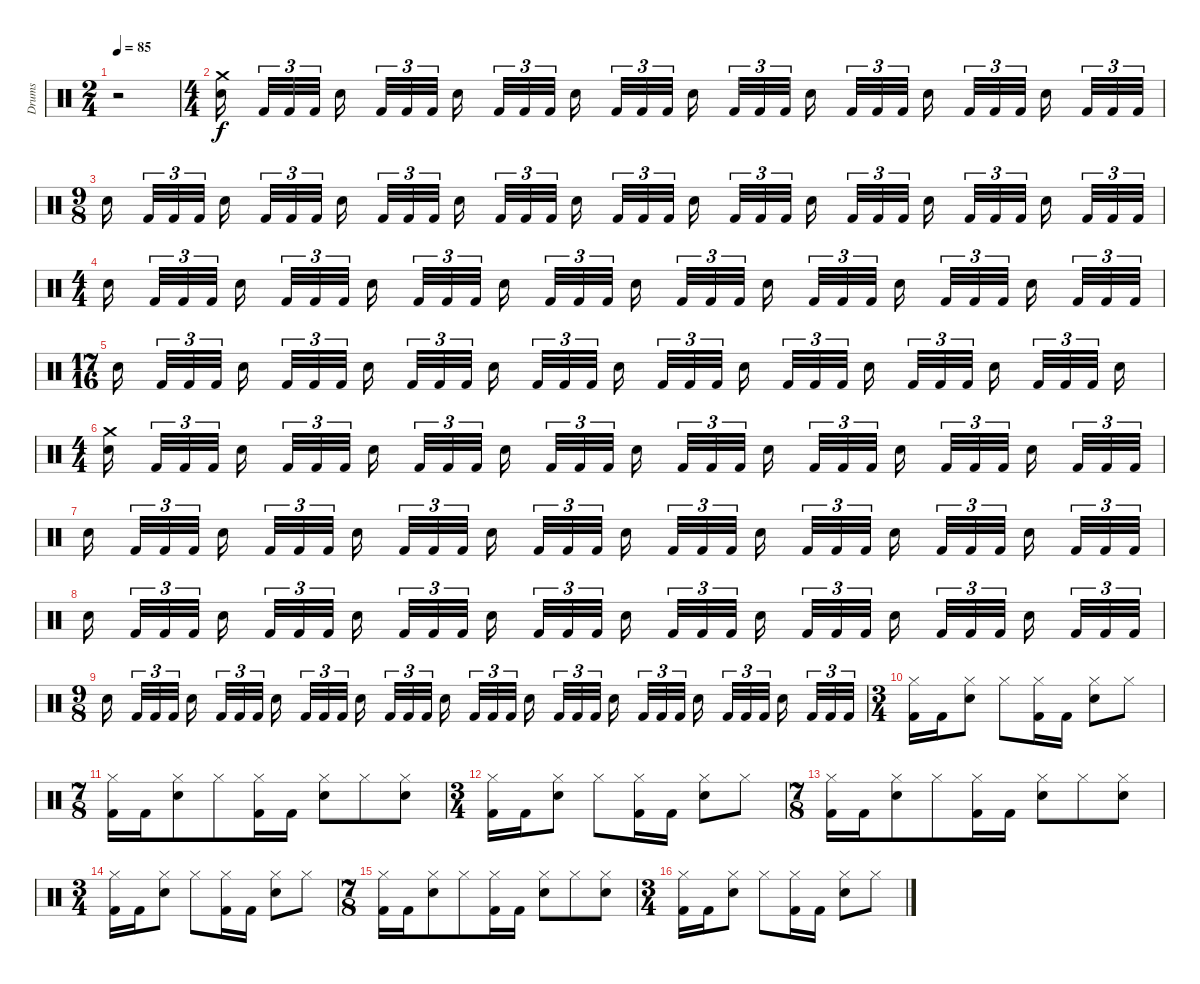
\track ("Drums" "Drums") {instrument percussion}
\staff {score}
\articulation defaults
\ts (2 4)
\tempo 85
\clef neutral
\ks c
r.2{dy f} |
\ts (4 4)
("Crash medium (hit)" "Electric Snare (hit)").16{beam splitsecondary} "Kick (hit) 2".32{tu (3 2)} "Kick (hit) 2".32{tu (3 2)} "Kick (hit) 2".32{tu (3 2) beam splitsecondary} "Electric Snare (hit)".16{beam splitsecondary} "Kick (hit) 2".32{tu (3 2)} "Kick (hit) 2".32{tu (3 2)} "Kick (hit) 2".32{tu (3 2)} "Electric Snare (hit)".16{beam splitsecondary} "Kick (hit) 2".32{tu (3 2)} "Kick (hit) 2".32{tu (3 2)} "Kick (hit) 2".32{tu (3 2) beam splitsecondary} "Electric Snare (hit)".16{beam splitsecondary} "Kick (hit) 2".32{tu (3 2)} "Kick (hit) 2".32{tu (3 2)} "Kick (hit) 2".32{tu (3 2)} "Electric Snare (hit)".16{beam splitsecondary} "Kick (hit) 2".32{tu (3 2)} "Kick (hit) 2".32{tu (3 2)} "Kick (hit) 2".32{tu (3 2) beam splitsecondary} "Electric Snare (hit)".16{beam splitsecondary} "Kick (hit) 2".32{tu (3 2)} "Kick (hit) 2".32{tu (3 2)} "Kick (hit) 2".32{tu (3 2)} "Electric Snare (hit)".16{beam splitsecondary} "Kick (hit) 2".32{tu (3 2)} "Kick (hit) 2".32{tu (3 2)} "Kick (hit) 2".32{tu (3 2) beam splitsecondary} "Electric Snare (hit)".16{beam splitsecondary} "Kick (hit) 2".32{tu (3 2)} "Kick (hit) 2".32{tu (3 2)} "Kick (hit) 2".32{tu (3 2)} |
\ts (9 8)
"Electric Snare (hit)".16{beam splitsecondary} "Kick (hit) 2".32{tu (3 2)} "Kick (hit) 2".32{tu (3 2)} "Kick (hit) 2".32{tu (3 2) beam splitsecondary} "Electric Snare (hit)".16{beam splitsecondary} "Kick (hit) 2".32{tu (3 2)} "Kick (hit) 2".32{tu (3 2)} "Kick (hit) 2".32{tu (3 2) beam splitsecondary} "Electric Snare (hit)".16{beam splitsecondary} "Kick (hit) 2".32{tu (3 2)} "Kick (hit) 2".32{tu (3 2)} "Kick (hit) 2".32{tu (3 2)} "Electric Snare (hit)".16{beam splitsecondary} "Kick (hit) 2".32{tu (3 2)} "Kick (hit) 2".32{tu (3 2)} "Kick (hit) 2".32{tu (3 2) beam splitsecondary} "Electric Snare (hit)".16{beam splitsecondary} "Kick (hit) 2".32{tu (3 2)} "Kick (hit) 2".32{tu (3 2)} "Kick (hit) 2".32{tu (3 2) beam splitsecondary} "Electric Snare (hit)".16{beam splitsecondary} "Kick (hit) 2".32{tu (3 2)} "Kick (hit) 2".32{tu (3 2)} "Kick (hit) 2".32{tu (3 2)} "Electric Snare (hit)".16{beam splitsecondary} "Kick (hit) 2".32{tu (3 2)} "Kick (hit) 2".32{tu (3 2)} "Kick (hit) 2".32{tu (3 2) beam splitsecondary} "Electric Snare (hit)".16{beam splitsecondary} "Kick (hit) 2".32{tu (3 2)} "Kick (hit) 2".32{tu (3 2)} "Kick (hit) 2".32{tu (3 2) beam splitsecondary} "Electric Snare (hit)".16{beam splitsecondary} "Kick (hit) 2".32{tu (3 2)} "Kick (hit) 2".32{tu (3 2)} "Kick (hit) 2".32{tu (3 2)} |
\ts (4 4)
"Electric Snare (hit)".16{beam splitsecondary} "Kick (hit) 2".32{tu (3 2)} "Kick (hit) 2".32{tu (3 2)} "Kick (hit) 2".32{tu (3 2) beam splitsecondary} "Electric Snare (hit)".16{beam splitsecondary} "Kick (hit) 2".32{tu (3 2)} "Kick (hit) 2".32{tu (3 2)} "Kick (hit) 2".32{tu (3 2)} "Electric Snare (hit)".16{beam splitsecondary} "Kick (hit) 2".32{tu (3 2)} "Kick (hit) 2".32{tu (3 2)} "Kick (hit) 2".32{tu (3 2) beam splitsecondary} "Electric Snare (hit)".16{beam splitsecondary} "Kick (hit) 2".32{tu (3 2)} "Kick (hit) 2".32{tu (3 2)} "Kick (hit) 2".32{tu (3 2)} "Electric Snare (hit)".16{beam splitsecondary} "Kick (hit) 2".32{tu (3 2)} "Kick (hit) 2".32{tu (3 2)} "Kick (hit) 2".32{tu (3 2) beam splitsecondary} "Electric Snare (hit)".16{beam splitsecondary} "Kick (hit) 2".32{tu (3 2)} "Kick (hit) 2".32{tu (3 2)} "Kick (hit) 2".32{tu (3 2)} "Electric Snare (hit)".16{beam splitsecondary} "Kick (hit) 2".32{tu (3 2)} "Kick (hit) 2".32{tu (3 2)} "Kick (hit) 2".32{tu (3 2) beam splitsecondary} "Electric Snare (hit)".16{beam splitsecondary} "Kick (hit) 2".32{tu (3 2)} "Kick (hit) 2".32{tu (3 2)} "Kick (hit) 2".32{tu (3 2)} |
\ts (17 16)
"Electric Snare (hit)".16 "Kick (hit) 2".32{tu (3 2)} "Kick (hit) 2".32{tu (3 2)} "Kick (hit) 2".32{tu (3 2)} "Electric Snare (hit)".16 "Kick (hit) 2".32{tu (3 2)} "Kick (hit) 2".32{tu (3 2)} "Kick (hit) 2".32{tu (3 2)} "Electric Snare (hit)".16 "Kick (hit) 2".32{tu (3 2)} "Kick (hit) 2".32{tu (3 2)} "Kick (hit) 2".32{tu (3 2)} "Electric Snare (hit)".16 "Kick (hit) 2".32{tu (3 2)} "Kick (hit) 2".32{tu (3 2)} "Kick (hit) 2".32{tu (3 2)} "Electric Snare (hit)".16 "Kick (hit) 2".32{tu (3 2)} "Kick (hit) 2".32{tu (3 2)} "Kick (hit) 2".32{tu (3 2)} "Electric Snare (hit)".16 "Kick (hit) 2".32{tu (3 2)} "Kick (hit) 2".32{tu (3 2)} "Kick (hit) 2".32{tu (3 2)} "Electric Snare (hit)".16 "Kick (hit) 2".32{tu (3 2)} "Kick (hit) 2".32{tu (3 2)} "Kick (hit) 2".32{tu (3 2)} "Electric Snare (hit)".16 "Kick (hit) 2".32{tu (3 2)} "Kick (hit) 2".32{tu (3 2)} "Kick (hit) 2".32{tu (3 2)} "Electric Snare (hit)".16 |
\ts (4 4)
("Crash medium (hit)" "Electric Snare (hit)").16{beam splitsecondary} "Kick (hit) 2".32{tu (3 2)} "Kick (hit) 2".32{tu (3 2)} "Kick (hit) 2".32{tu (3 2) beam splitsecondary} "Electric Snare (hit)".16{beam splitsecondary} "Kick (hit) 2".32{tu (3 2)} "Kick (hit) 2".32{tu (3 2)} "Kick (hit) 2".32{tu (3 2)} "Electric Snare (hit)".16{beam splitsecondary} "Kick (hit) 2".32{tu (3 2)} "Kick (hit) 2".32{tu (3 2)} "Kick (hit) 2".32{tu (3 2) beam splitsecondary} "Electric Snare (hit)".16{beam splitsecondary} "Kick (hit) 2".32{tu (3 2)} "Kick (hit) 2".32{tu (3 2)} "Kick (hit) 2".32{tu (3 2)} "Electric Snare (hit)".16{beam splitsecondary} "Kick (hit) 2".32{tu (3 2)} "Kick (hit) 2".32{tu (3 2)} "Kick (hit) 2".32{tu (3 2) beam splitsecondary} "Electric Snare (hit)".16{beam splitsecondary} "Kick (hit) 2".32{tu (3 2)} "Kick (hit) 2".32{tu (3 2)} "Kick (hit) 2".32{tu (3 2)} "Electric Snare (hit)".16{beam splitsecondary} "Kick (hit) 2".32{tu (3 2)} "Kick (hit) 2".32{tu (3 2)} "Kick (hit) 2".32{tu (3 2) beam splitsecondary} "Electric Snare (hit)".16{beam splitsecondary} "Kick (hit) 2".32{tu (3 2)} "Kick (hit) 2".32{tu (3 2)} "Kick (hit) 2".32{tu (3 2)} |
"Electric Snare (hit)".16{beam splitsecondary} "Kick (hit) 2".32{tu (3 2)} "Kick (hit) 2".32{tu (3 2)} "Kick (hit) 2".32{tu (3 2) beam splitsecondary} "Electric Snare (hit)".16{beam splitsecondary} "Kick (hit) 2".32{tu (3 2)} "Kick (hit) 2".32{tu (3 2)} "Kick (hit) 2".32{tu (3 2)} "Electric Snare (hit)".16{beam splitsecondary} "Kick (hit) 2".32{tu (3 2)} "Kick (hit) 2".32{tu (3 2)} "Kick (hit) 2".32{tu (3 2) beam splitsecondary} "Electric Snare (hit)".16{beam splitsecondary} "Kick (hit) 2".32{tu (3 2)} "Kick (hit) 2".32{tu (3 2)} "Kick (hit) 2".32{tu (3 2)} "Electric Snare (hit)".16{beam splitsecondary} "Kick (hit) 2".32{tu (3 2)} "Kick (hit) 2".32{tu (3 2)} "Kick (hit) 2".32{tu (3 2) beam splitsecondary} "Electric Snare (hit)".16{beam splitsecondary} "Kick (hit) 2".32{tu (3 2)} "Kick (hit) 2".32{tu (3 2)} "Kick (hit) 2".32{tu (3 2)} "Electric Snare (hit)".16{beam splitsecondary} "Kick (hit) 2".32{tu (3 2)} "Kick (hit) 2".32{tu (3 2)} "Kick (hit) 2".32{tu (3 2) beam splitsecondary} "Electric Snare (hit)".16{beam splitsecondary} "Kick (hit) 2".32{tu (3 2)} "Kick (hit) 2".32{tu (3 2)} "Kick (hit) 2".32{tu (3 2)} |
"Electric Snare (hit)".16{beam splitsecondary} "Kick (hit) 2".32{tu (3 2)} "Kick (hit) 2".32{tu (3 2)} "Kick (hit) 2".32{tu (3 2) beam splitsecondary} "Electric Snare (hit)".16{beam splitsecondary} "Kick (hit) 2".32{tu (3 2)} "Kick (hit) 2".32{tu (3 2)} "Kick (hit) 2".32{tu (3 2)} "Electric Snare (hit)".16{beam splitsecondary} "Kick (hit) 2".32{tu (3 2)} "Kick (hit) 2".32{tu (3 2)} "Kick (hit) 2".32{tu (3 2) beam splitsecondary} "Electric Snare (hit)".16{beam splitsecondary} "Kick (hit) 2".32{tu (3 2)} "Kick (hit) 2".32{tu (3 2)} "Kick (hit) 2".32{tu (3 2)} "Electric Snare (hit)".16{beam splitsecondary} "Kick (hit) 2".32{tu (3 2)} "Kick (hit) 2".32{tu (3 2)} "Kick (hit) 2".32{tu (3 2) beam splitsecondary} "Electric Snare (hit)".16{beam splitsecondary} "Kick (hit) 2".32{tu (3 2)} "Kick (hit) 2".32{tu (3 2)} "Kick (hit) 2".32{tu (3 2)} "Electric Snare (hit)".16{beam splitsecondary} "Kick (hit) 2".32{tu (3 2)} "Kick (hit) 2".32{tu (3 2)} "Kick (hit) 2".32{tu (3 2) beam splitsecondary} "Electric Snare (hit)".16{beam splitsecondary} "Kick (hit) 2".32{tu (3 2)} "Kick (hit) 2".32{tu (3 2)} "Kick (hit) 2".32{tu (3 2)} |
\ts (9 8)
"Electric Snare (hit)".16{beam splitsecondary} "Kick (hit) 2".32{tu (3 2)} "Kick (hit) 2".32{tu (3 2)} "Kick (hit) 2".32{tu (3 2) beam splitsecondary} "Electric Snare (hit)".16{beam splitsecondary} "Kick (hit) 2".32{tu (3 2)} "Kick (hit) 2".32{tu (3 2)} "Kick (hit) 2".32{tu (3 2) beam splitsecondary} "Electric Snare (hit)".16{beam splitsecondary} "Kick (hit) 2".32{tu (3 2)} "Kick (hit) 2".32{tu (3 2)} "Kick (hit) 2".32{tu (3 2)} "Electric Snare (hit)".16{beam splitsecondary} "Kick (hit) 2".32{tu (3 2)} "Kick (hit) 2".32{tu (3 2)} "Kick (hit) 2".32{tu (3 2) beam splitsecondary} "Electric Snare (hit)".16{beam splitsecondary} "Kick (hit) 2".32{tu (3 2)} "Kick (hit) 2".32{tu (3 2)} "Kick (hit) 2".32{tu (3 2) beam splitsecondary} "Electric Snare (hit)".16{beam splitsecondary} "Kick (hit) 2".32{tu (3 2)} "Kick (hit) 2".32{tu (3 2)} "Kick (hit) 2".32{tu (3 2)} "Electric Snare (hit)".16{beam splitsecondary} "Kick (hit) 2".32{tu (3 2)} "Kick (hit) 2".32{tu (3 2)} "Kick (hit) 2".32{tu (3 2) beam splitsecondary} "Electric Snare (hit)".16{beam splitsecondary} "Kick (hit) 2".32{tu (3 2)} "Kick (hit) 2".32{tu (3 2)} "Kick (hit) 2".32{tu (3 2) beam splitsecondary} "Electric Snare (hit)".16{beam splitsecondary} "Kick (hit) 2".32{tu (3 2)} "Kick (hit) 2".32{tu (3 2)} "Kick (hit) 2".32{tu (3 2)} |
\ts (3 4)
("Hi-Hat (closed)" "Kick (hit) 2").16 "Kick (hit) 2".16 ("Hi-Hat (closed)" "Snare (hit) 2").8 "Hi-Hat (closed)".8 ("Hi-Hat (closed)" "Kick (hit) 2").16 "Kick (hit) 2".16 ("Hi-Hat (closed)" "Snare (hit) 2").8 "Hi-Hat (closed)".8 |
\ts (7 8)
("Hi-Hat (closed)" "Kick (hit) 2").16 "Kick (hit) 2".16 ("Hi-Hat (closed)" "Snare (hit) 2").8 "Hi-Hat (closed)".8 ("Hi-Hat (closed)" "Kick (hit) 2").16 "Kick (hit) 2".16 ("Hi-Hat (closed)" "Snare (hit) 2").8 "Hi-Hat (closed)".8 ("Hi-Hat (closed)" "Snare (hit) 2").8 |
\ts (3 4)
("Hi-Hat (closed)" "Kick (hit) 2").16 "Kick (hit) 2".16 ("Hi-Hat (closed)" "Snare (hit) 2").8 "Hi-Hat (closed)".8 ("Hi-Hat (closed)" "Kick (hit) 2").16 "Kick (hit) 2".16 ("Hi-Hat (closed)" "Snare (hit) 2").8 "Hi-Hat (closed)".8 |
\ts (7 8)
("Hi-Hat (closed)" "Kick (hit) 2").16 "Kick (hit) 2".16 ("Hi-Hat (closed)" "Snare (hit) 2").8 "Hi-Hat (closed)".8 ("Hi-Hat (closed)" "Kick (hit) 2").16 "Kick (hit) 2".16 ("Hi-Hat (closed)" "Snare (hit) 2").8 "Hi-Hat (closed)".8 ("Hi-Hat (closed)" "Snare (hit) 2").8 |
\ts (3 4)
("Hi-Hat (closed)" "Kick (hit) 2").16 "Kick (hit) 2".16 ("Hi-Hat (closed)" "Snare (hit) 2").8 "Hi-Hat (closed)".8 ("Hi-Hat (closed)" "Kick (hit) 2").16 "Kick (hit) 2".16 ("Hi-Hat (closed)" "Snare (hit) 2").8 "Hi-Hat (closed)".8 |
\ts (7 8)
("Hi-Hat (closed)" "Kick (hit) 2").16 "Kick (hit) 2".16 ("Hi-Hat (closed)" "Snare (hit) 2").8 "Hi-Hat (closed)".8 ("Hi-Hat (closed)" "Kick (hit) 2").16 "Kick (hit) 2".16 ("Hi-Hat (closed)" "Snare (hit) 2").8 "Hi-Hat (closed)".8 ("Hi-Hat (closed)" "Snare (hit) 2").8 |
\ts (3 4)
("Hi-Hat (closed)" "Kick (hit) 2").16 "Kick (hit) 2".16 ("Hi-Hat (closed)" "Snare (hit) 2").8 "Hi-Hat (closed)".8 ("Hi-Hat (closed)" "Kick (hit) 2").16 "Kick (hit) 2".16 ("Hi-Hat (closed)" "Snare (hit) 2").8 "Hi-Hat (closed)".8
